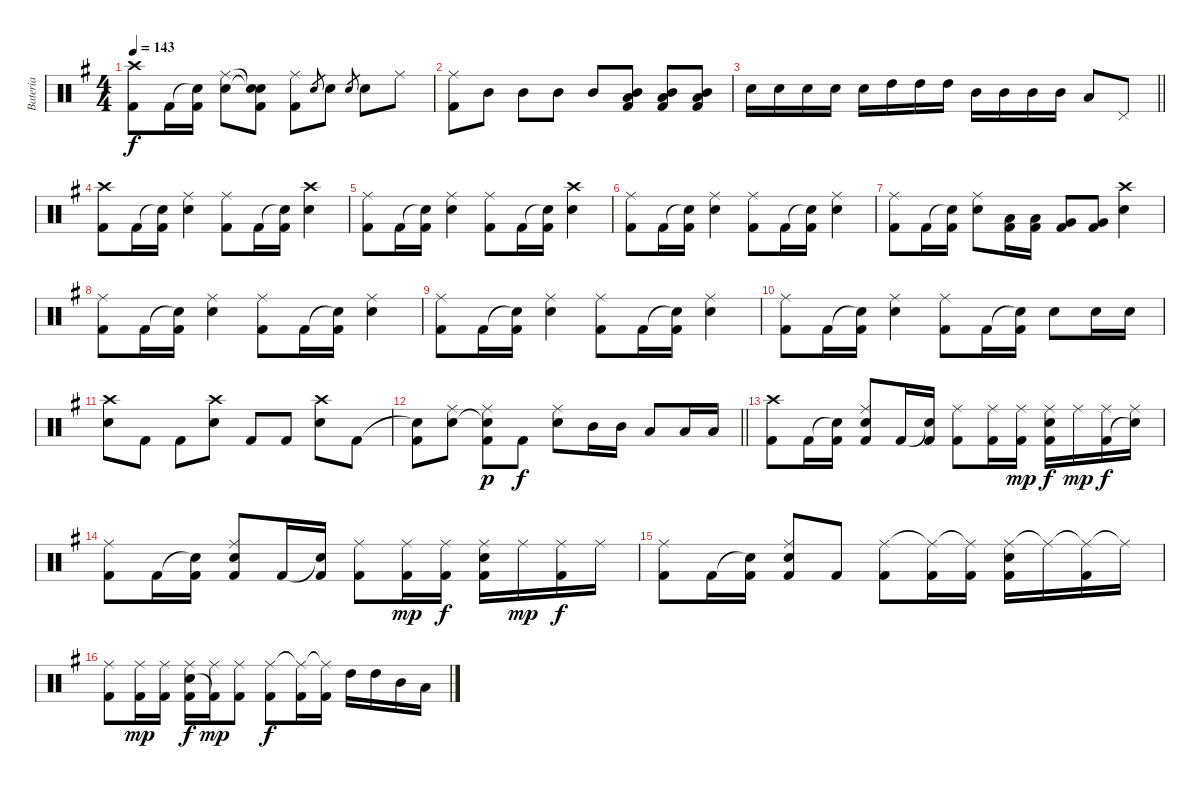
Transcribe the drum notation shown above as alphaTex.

\track ("Bateria" "Bateria") {instrument percussion}
\staff {score}
\articulation defaults
\ts (4 4)
\tempo 143
\clef neutral
\ks g
("Crash high (hit)" "Kick (hit) 2").8{dy f} "Kick (hit) 2".16 ("Snare (hit)"{t} "Kick (hit) 2").16 ("Ride (middle)" "Electric Snare (hit)").8 ("Snare (hit)"{t} "Snare (hit)"{t} "Kick (hit) 2").8 ("Ride (middle)" "Kick (hit) 2").8 "Electric Snare (hit)".8{gr} "Electric Snare (hit)".8 "Electric Snare (hit)".8{gr} "Electric Snare (hit)".8 "Ride (middle)".8 |
("Ride (middle)" "Kick (hit) 2").8 "Mid Tom (hit)".8 "Mid Tom (hit)".8 "Mid Tom (hit)".8 "Mid Tom (hit)".8 ("Mid Tom (hit)" "Low Tom (hit)" "Kick (hit) 2").8 ("Mid Tom (hit)" "Low Tom (hit)" "Kick (hit) 2").8 ("Mid Tom (hit)" "Low Tom (hit)" "Kick (hit) 2").8 |
\barLineRight lightlight "Electric Snare (hit)".16 "Electric Snare (hit)".16 "Electric Snare (hit)".16 "Electric Snare (hit)".16 "Electric Snare (hit)".16 "High Tom (hit)".16 "High Tom (hit)".16 "High Tom (hit)".16 "Mid Tom (hit)".16 "Mid Tom (hit)".16 "Mid Tom (hit)".16 "Mid Tom (hit)".16 "Low Tom (hit)".8 "Pedal Hi-Hat (hit)".8
|
("Crash high (hit)" "Kick (hit) 2").8 "Kick (hit) 2".16 ("Snare (hit)"{t} "Kick (hit) 2").16 ("Ride (middle)" "Electric Snare (hit)").4 ("Ride (middle)" "Kick (hit) 2").8 "Kick (hit) 2".16 ("Snare (hit)"{t} "Kick (hit) 2").16 ("Crash high (hit)" "Electric Snare (hit)").4 |
("Ride (middle)" "Kick (hit) 2").8 "Kick (hit) 2".16 ("Snare (hit)"{t} "Kick (hit) 2").16 ("Ride (middle)" "Electric Snare (hit)").4 ("Ride (middle)" "Kick (hit) 2").8 "Kick (hit) 2".16 ("Snare (hit)"{t} "Kick (hit) 2").16 ("Crash high (hit)" "Electric Snare (hit)").4 |
("Ride (middle)" "Kick (hit) 2").8 "Kick (hit) 2".16 ("Snare (hit)"{t} "Kick (hit) 2").16 ("Ride (middle)" "Electric Snare (hit)").4 ("Ride (middle)" "Kick (hit) 2").8 "Kick (hit) 2".16 ("Snare (hit)"{t} "Kick (hit) 2").16 ("Ride (middle)" "Electric Snare (hit)").4 |
("Ride (middle)" "Kick (hit) 2").8 "Kick (hit) 2".16 ("Snare (hit)"{t} "Kick (hit) 2").16 ("Ride (middle)" "Electric Snare (hit)").8 ("Low Tom (hit)" "Kick (hit) 2").16 ("Low Tom (hit)" "Kick (hit) 2").16 ("Very Low Tom (hit)" "Kick (hit) 2").8 ("Very Low Tom (hit)" "Kick (hit) 2").8 ("Crash high (hit)" "Electric Snare (hit)").4 |
("Ride (middle)" "Kick (hit) 2").8 "Kick (hit) 2".16 ("Snare (hit)"{t} "Kick (hit) 2").16 ("Ride (middle)" "Electric Snare (hit)").4 ("Ride (middle)" "Kick (hit) 2").8 "Kick (hit) 2".16 ("Snare (hit)"{t} "Kick (hit) 2").16 ("Ride (middle)" "Electric Snare (hit)").4 |
("Ride (middle)" "Kick (hit) 2").8 "Kick (hit) 2".16 ("Snare (hit)"{t} "Kick (hit) 2").16 ("Ride (middle)" "Electric Snare (hit)").4 ("Ride (middle)" "Kick (hit) 2").8 "Kick (hit) 2".16 ("Snare (hit)"{t} "Kick (hit) 2").16 ("Ride (middle)" "Electric Snare (hit)").4 |
("Ride (middle)" "Kick (hit) 2").8 "Kick (hit) 2".16 ("Snare (hit)"{t} "Kick (hit) 2").16 ("Ride (middle)" "Electric Snare (hit)").4 ("Ride (middle)" "Kick (hit) 2").8 "Kick (hit) 2".16 ("Snare (hit)"{t} "Kick (hit) 2").16 "Electric Snare (hit)".8 "Electric Snare (hit)".16 "Electric Snare (hit)".16 |
("Crash high (hit)" "Electric Snare (hit)").8 "Kick (hit) 2".8 "Kick (hit) 2".8 ("Crash high (hit)" "Electric Snare (hit)").8 "Kick (hit) 2".8 "Kick (hit) 2".8 ("Crash high (hit)" "Electric Snare (hit)").8 "Kick (hit) 2".8 |
\barLineRight lightlight
("Snare (hit)"{t} "Kick (hit) 2").8 ("Ride (middle)" "Electric Snare (hit)").8 ("Ride (middle)" "Snare (hit)"{t} "Kick (hit) 2").8{dy p} "Kick (hit) 2".8{dy f} ("Ride (middle)" "Electric Snare (hit)").8 "Mid Tom (hit)".16 "Mid Tom (hit)".16 "Low Tom (hit)".8 "Low Tom (hit)".16 "Low Tom (hit)".16 |
("Crash high (hit)" "Kick (hit) 2").8 "Kick (hit) 2".16 ("Snare (hit)"{t} "Kick (hit) 2").16 ("Ride (middle)" "Electric Snare (hit)" "Kick (hit) 2").8 "Kick (hit) 2".16 ("Snare (hit)"{t} "Kick (hit) 2").16 ("Ride (middle)" "Kick (hit) 2").8 ("Ride (middle)" "Kick (hit) 2").16 ("Ride (middle)" "Kick (hit) 2").16{dy mp} ("Ride (middle)" "Electric Snare (hit)" "Kick (hit) 2").16{dy f} "Ride (middle)".16{dy mp} ("Ride (middle)" "Kick (hit) 2").16{dy f} ("Ride (middle)" "Snare (hit)"{t}).16 |
("Ride (middle)" "Kick (hit) 2").8 "Kick (hit) 2".16 ("Snare (hit)"{t} "Kick (hit) 2").16 ("Ride (middle)" "Electric Snare (hit)" "Kick (hit) 2").8 "Kick (hit) 2".16 ("Snare (hit)"{t} "Kick (hit) 2").16 ("Ride (middle)" "Kick (hit) 2").8 ("Ride (middle)" "Kick (hit) 2").16{dy mp} ("Ride (middle)" "Kick (hit) 2").16{dy f} ("Ride (middle)" "Electric Snare (hit)" "Kick (hit) 2").16 "Ride (middle)".16{dy mp} ("Ride (middle)" "Kick (hit) 2").16{dy f} "Ride (middle)".16 |
("Ride (middle)" "Kick (hit) 2").8 "Kick (hit) 2".16 ("Snare (hit)"{t} "Kick (hit) 2").16 ("Ride (middle)" "Electric Snare (hit)" "Kick (hit) 2").8 "Kick (hit) 2".8 ("Ride (middle)" "Kick (hit) 2").8 ("Ride (middle)"{t} "Kick (hit) 2").16 ("Ride (middle)"{t} "Kick (hit) 2").16 ("Ride (middle)" "Electric Snare (hit)" "Kick (hit) 2").16 "Ride (middle)"{t}.16 ("Ride (middle)"{t} "Kick (hit) 2").16 "Ride (middle)"{t}.16 |
("Ride (middle)" "Kick (hit) 2").8 ("Ride (middle)" "Kick (hit) 2").16{dy mp} ("Ride (middle)" "Kick (hit) 2").16 ("Ride (middle)" "Electric Snare (hit)" "Kick (hit) 2").16{dy f} ("Ride (middle)" "Kick (hit) 2"{t}).16{dy mp} ("Ride (middle)" "Kick (hit) 2").8 ("Ride (middle)" "Kick (hit) 2").8{dy f} ("Ride (middle)"{t} "Kick (hit) 2").16 ("Ride (middle)"{t} "Kick (hit) 2").16 "High Tom (hit)".16 "High Tom (hit)".16 "Mid Tom (hit)".16 "Low Tom (hit)".16
